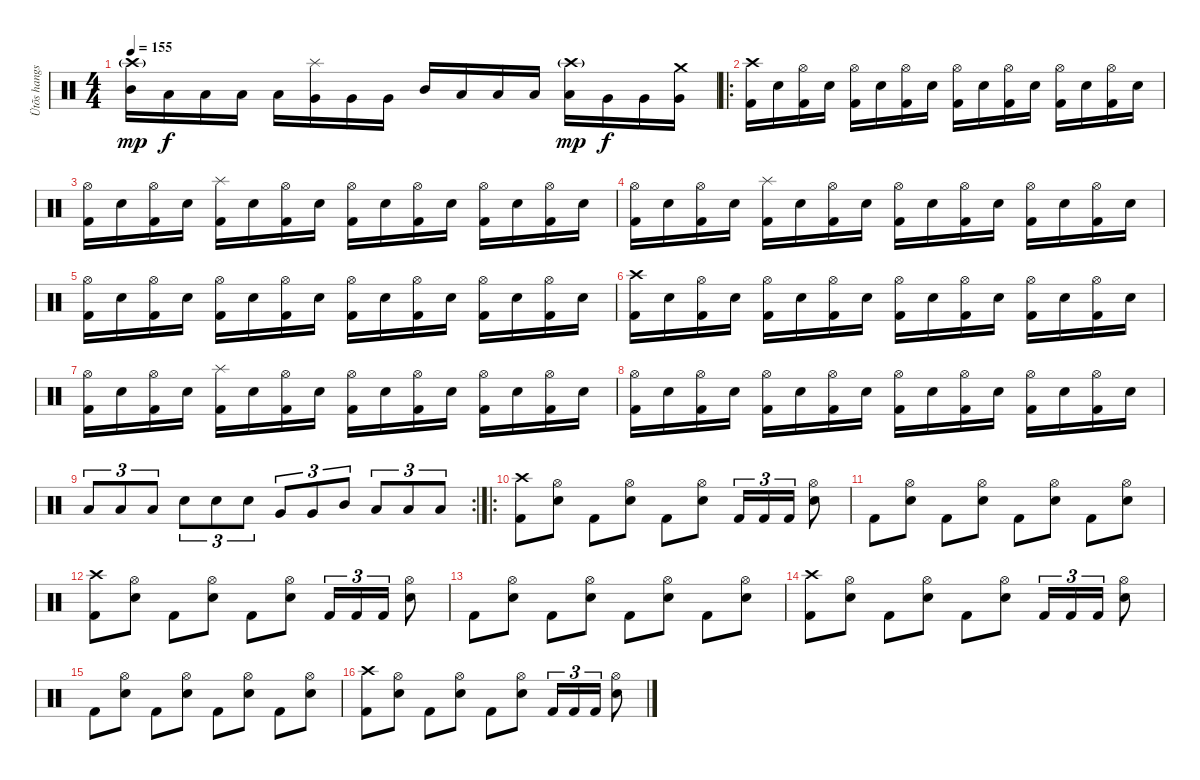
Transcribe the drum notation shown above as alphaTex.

\track ("Ütõs hangszer" "Ütõs hangs") {instrument percussion}
\staff {score}
\articulation defaults
\ts (4 4)
\tempo 155
\clef neutral
\ks c
("Crash high (hit)"{g} "Mid Tom (hit)").16{dy mp} "Low Tom (hit)".16{dy f} "Low Tom (hit)".16 "Low Tom (hit)".16 "Low Tom (hit)".16 ("Splash (hit)" "Very Low Tom (hit)").16 "Very Low Tom (hit)".16 "Very Low Tom (hit)".16 "Mid Tom (hit)".16 "Low Tom (hit)".16 "Low Tom (hit)".16 "Low Tom (hit)".16 ("Crash high (hit)"{g} "Low Tom (hit)").16{dy mp} "Very Low Tom (hit)".16{dy f} "Very Low Tom (hit)".16 ("Crash medium (hit)" "Very Low Tom (hit)").16 |
\ro
("Crash high (hit)" "Kick (hit) 2").16 "Snare (hit) 2".16 ("Hi-Hat (open)" "Kick (hit) 2").16 "Snare (hit) 2".16 ("Hi-Hat (open)" "Kick (hit) 2").16 "Snare (hit) 2".16 ("Hi-Hat (open)" "Kick (hit) 2").16 "Snare (hit) 2".16 ("Hi-Hat (open)" "Kick (hit) 2").16 "Snare (hit) 2".16 ("Hi-Hat (open)" "Kick (hit) 2").16 "Snare (hit) 2".16 ("Hi-Hat (open)" "Kick (hit) 2").16 "Snare (hit) 2".16 ("Hi-Hat (open)" "Kick (hit) 2").16 "Snare (hit) 2".16 |
("Hi-Hat (open)" "Kick (hit) 2").16 "Snare (hit) 2".16 ("Hi-Hat (open)" "Kick (hit) 2").16 "Snare (hit) 2".16 ("Splash (hit)" "Kick (hit) 2").16 "Snare (hit) 2".16 ("Hi-Hat (open)" "Kick (hit) 2").16 "Snare (hit) 2".16 ("Hi-Hat (open)" "Kick (hit) 2").16 "Snare (hit) 2".16 ("Hi-Hat (open)" "Kick (hit) 2").16 "Snare (hit) 2".16 ("Hi-Hat (open)" "Kick (hit) 2").16 "Snare (hit) 2".16 ("Hi-Hat (open)" "Kick (hit) 2").16 "Snare (hit) 2".16 |
("Hi-Hat (open)" "Kick (hit) 2").16 "Snare (hit) 2".16 ("Hi-Hat (open)" "Kick (hit) 2").16 "Snare (hit) 2".16 ("Splash (hit)" "Kick (hit) 2").16 "Snare (hit) 2".16 ("Hi-Hat (open)" "Kick (hit) 2").16 "Snare (hit) 2".16 ("Hi-Hat (open)" "Kick (hit) 2").16 "Snare (hit) 2".16 ("Hi-Hat (open)" "Kick (hit) 2").16 "Snare (hit) 2".16 ("Hi-Hat (open)" "Kick (hit) 2").16 "Snare (hit) 2".16 ("Hi-Hat (open)" "Kick (hit) 2").16 "Snare (hit) 2".16 |
("Hi-Hat (open)" "Kick (hit) 2").16 "Snare (hit) 2".16 ("Hi-Hat (open)" "Kick (hit) 2").16 "Snare (hit) 2".16 ("Hi-Hat (open)" "Kick (hit) 2").16 "Snare (hit) 2".16 ("Hi-Hat (open)" "Kick (hit) 2").16 "Snare (hit) 2".16 ("Hi-Hat (open)" "Kick (hit) 2").16 "Snare (hit) 2".16 ("Hi-Hat (open)" "Kick (hit) 2").16 "Snare (hit) 2".16 ("Hi-Hat (open)" "Kick (hit) 2").16 "Snare (hit) 2".16 ("Hi-Hat (open)" "Kick (hit) 2").16 "Snare (hit) 2".16 |
("Crash high (hit)" "Kick (hit) 2").16 "Snare (hit) 2".16 ("Hi-Hat (open)" "Kick (hit) 2").16 "Snare (hit) 2".16 ("Hi-Hat (open)" "Kick (hit) 2").16 "Snare (hit) 2".16 ("Hi-Hat (open)" "Kick (hit) 2").16 "Snare (hit) 2".16 ("Hi-Hat (open)" "Kick (hit) 2").16 "Snare (hit) 2".16 ("Hi-Hat (open)" "Kick (hit) 2").16 "Snare (hit) 2".16 ("Hi-Hat (open)" "Kick (hit) 2").16 "Snare (hit) 2".16 ("Hi-Hat (open)" "Kick (hit) 2").16 "Snare (hit) 2".16 |
("Hi-Hat (open)" "Kick (hit) 2").16 "Snare (hit) 2".16 ("Hi-Hat (open)" "Kick (hit) 2").16 "Snare (hit) 2".16 ("Splash (hit)" "Kick (hit) 2").16 "Snare (hit) 2".16 ("Hi-Hat (open)" "Kick (hit) 2").16 "Snare (hit) 2".16 ("Hi-Hat (open)" "Kick (hit) 2").16 "Snare (hit) 2".16 ("Hi-Hat (open)" "Kick (hit) 2").16 "Snare (hit) 2".16 ("Hi-Hat (open)" "Kick (hit) 2").16 "Snare (hit) 2".16 ("Hi-Hat (open)" "Kick (hit) 2").16 "Snare (hit) 2".16 |
("Hi-Hat (open)" "Kick (hit) 2").16 "Snare (hit) 2".16 ("Hi-Hat (open)" "Kick (hit) 2").16 "Snare (hit) 2".16 ("Hi-Hat (open)" "Kick (hit) 2").16 "Snare (hit) 2".16 ("Hi-Hat (open)" "Kick (hit) 2").16 "Snare (hit) 2".16 ("Hi-Hat (open)" "Kick (hit) 2").16 "Snare (hit) 2".16 ("Hi-Hat (open)" "Kick (hit) 2").16 "Snare (hit) 2".16 ("Hi-Hat (open)" "Kick (hit) 2").16 "Snare (hit) 2".16 ("Hi-Hat (open)" "Kick (hit) 2").16 "Snare (hit) 2".16 |
\rc 2 "Low Tom (hit)".8{tu (3 2)} "Low Tom (hit)".8{tu (3 2)} "Low Tom (hit)".8{tu (3 2)} "Snare (hit) 2".8{tu (3 2)} "Snare (hit) 2".8{tu (3 2)} "Snare (hit) 2".8{tu (3 2)} "Very Low Tom (hit)".8{tu (3 2)} "Very Low Tom (hit)".8{tu (3 2)} "Mid Tom (hit)".8{tu (3 2)} "Low Tom (hit)".8{tu (3 2)} "Low Tom (hit)".8{tu (3 2)} "Low Tom (hit)".8{tu (3 2)}
|
\ro
("Crash high (hit)" "Kick (hit) 2").8 ("Hi-Hat (open)" "Snare (hit) 2").8 "Kick (hit) 2".8 ("Hi-Hat (open)" "Snare (hit) 2").8 "Kick (hit) 2".8 ("Hi-Hat (open)" "Snare (hit) 2").8 "Kick (hit) 2".16{tu (3 2)} "Kick (hit) 2".16{tu (3 2)} "Kick (hit) 2".16{tu (3 2)} ("Hi-Hat (open)" "Snare (hit) 2").8 |
"Kick (hit) 2".8 ("Hi-Hat (open)" "Snare (hit) 2").8 "Kick (hit) 2".8 ("Hi-Hat (open)" "Snare (hit) 2").8 "Kick (hit) 2".8 ("Hi-Hat (open)" "Snare (hit) 2").8 "Kick (hit) 2".8 ("Hi-Hat (open)" "Snare (hit) 2").8 |
("Crash high (hit)" "Kick (hit) 2").8 ("Hi-Hat (open)" "Snare (hit) 2").8 "Kick (hit) 2".8 ("Hi-Hat (open)" "Snare (hit) 2").8 "Kick (hit) 2".8 ("Hi-Hat (open)" "Snare (hit) 2").8 "Kick (hit) 2".16{tu (3 2)} "Kick (hit) 2".16{tu (3 2)} "Kick (hit) 2".16{tu (3 2)} ("Hi-Hat (open)" "Snare (hit) 2").8 |
"Kick (hit) 2".8 ("Hi-Hat (open)" "Snare (hit) 2").8 "Kick (hit) 2".8 ("Hi-Hat (open)" "Snare (hit) 2").8 "Kick (hit) 2".8 ("Hi-Hat (open)" "Snare (hit) 2").8 "Kick (hit) 2".8 ("Hi-Hat (open)" "Snare (hit) 2").8 |
("Crash high (hit)" "Kick (hit) 2").8 ("Hi-Hat (open)" "Snare (hit) 2").8 "Kick (hit) 2".8 ("Hi-Hat (open)" "Snare (hit) 2").8 "Kick (hit) 2".8 ("Hi-Hat (open)" "Snare (hit) 2").8 "Kick (hit) 2".16{tu (3 2)} "Kick (hit) 2".16{tu (3 2)} "Kick (hit) 2".16{tu (3 2)} ("Hi-Hat (open)" "Snare (hit) 2").8 |
"Kick (hit) 2".8 ("Hi-Hat (open)" "Snare (hit) 2").8 "Kick (hit) 2".8 ("Hi-Hat (open)" "Snare (hit) 2").8 "Kick (hit) 2".8 ("Hi-Hat (open)" "Snare (hit) 2").8 "Kick (hit) 2".8 ("Hi-Hat (open)" "Snare (hit) 2").8 |
("Crash high (hit)" "Kick (hit) 2").8 ("Hi-Hat (open)" "Snare (hit) 2").8 "Kick (hit) 2".8 ("Hi-Hat (open)" "Snare (hit) 2").8 "Kick (hit) 2".8 ("Hi-Hat (open)" "Snare (hit) 2").8 "Kick (hit) 2".16{tu (3 2)} "Kick (hit) 2".16{tu (3 2)} "Kick (hit) 2".16{tu (3 2)} ("Hi-Hat (open)" "Snare (hit) 2").8
